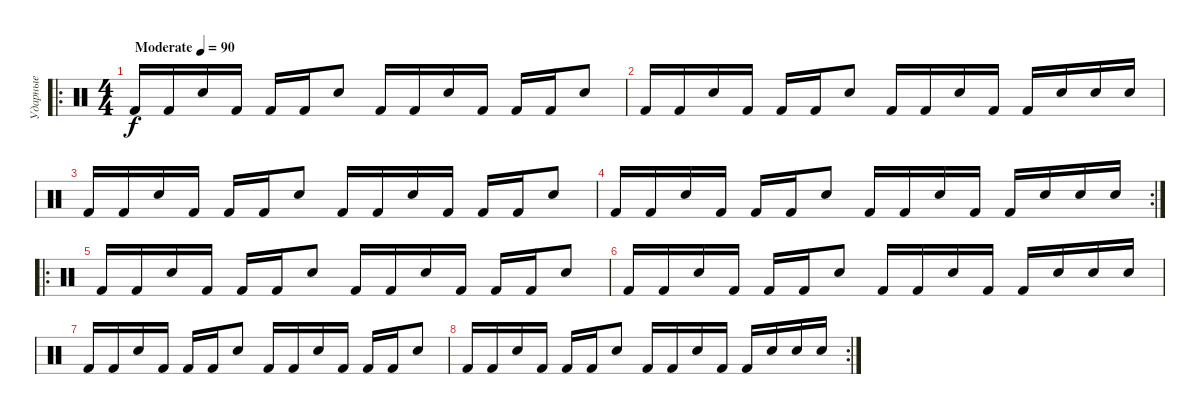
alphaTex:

\track ("Ударные" "Ударные") {instrument percussion}
\staff {score}
\articulation defaults
\ro
\ts (4 4)
\tempo (90 "Moderate")
\clef neutral
\ks c "Kick (hit) 2".16{dy f} "Kick (hit) 2".16 "Snare (hit) 2".16 "Kick (hit) 2".16 "Kick (hit) 2".16 "Kick (hit) 2".16 "Snare (hit) 2".8 "Kick (hit) 2".16 "Kick (hit) 2".16 "Snare (hit) 2".16 "Kick (hit) 2".16 "Kick (hit) 2".16 "Kick (hit) 2".16 "Snare (hit) 2".8
|
"Kick (hit) 2".16 "Kick (hit) 2".16 "Snare (hit) 2".16 "Kick (hit) 2".16 "Kick (hit) 2".16 "Kick (hit) 2".16 "Snare (hit) 2".8 "Kick (hit) 2".16 "Kick (hit) 2".16 "Snare (hit) 2".16 "Kick (hit) 2".16 "Kick (hit) 2".16 "Snare (hit) 2".16 "Snare (hit) 2".16 "Snare (hit) 2".16 |
"Kick (hit) 2".16 "Kick (hit) 2".16 "Snare (hit) 2".16 "Kick (hit) 2".16 "Kick (hit) 2".16 "Kick (hit) 2".16 "Snare (hit) 2".8 "Kick (hit) 2".16 "Kick (hit) 2".16 "Snare (hit) 2".16 "Kick (hit) 2".16 "Kick (hit) 2".16 "Kick (hit) 2".16 "Snare (hit) 2".8 |
\rc 2 "Kick (hit) 2".16 "Kick (hit) 2".16 "Snare (hit) 2".16 "Kick (hit) 2".16 "Kick (hit) 2".16 "Kick (hit) 2".16 "Snare (hit) 2".8 "Kick (hit) 2".16 "Kick (hit) 2".16 "Snare (hit) 2".16 "Kick (hit) 2".16 "Kick (hit) 2".16 "Snare (hit) 2".16 "Snare (hit) 2".16 "Snare (hit) 2".16
|
\ro "Kick (hit) 2".16 "Kick (hit) 2".16 "Snare (hit) 2".16 "Kick (hit) 2".16 "Kick (hit) 2".16 "Kick (hit) 2".16 "Snare (hit) 2".8 "Kick (hit) 2".16 "Kick (hit) 2".16 "Snare (hit) 2".16 "Kick (hit) 2".16 "Kick (hit) 2".16 "Kick (hit) 2".16 "Snare (hit) 2".8
|
"Kick (hit) 2".16 "Kick (hit) 2".16 "Snare (hit) 2".16 "Kick (hit) 2".16 "Kick (hit) 2".16 "Kick (hit) 2".16 "Snare (hit) 2".8 "Kick (hit) 2".16 "Kick (hit) 2".16 "Snare (hit) 2".16 "Kick (hit) 2".16 "Kick (hit) 2".16 "Snare (hit) 2".16 "Snare (hit) 2".16 "Snare (hit) 2".16 |
"Kick (hit) 2".16 "Kick (hit) 2".16 "Snare (hit) 2".16 "Kick (hit) 2".16 "Kick (hit) 2".16 "Kick (hit) 2".16 "Snare (hit) 2".8 "Kick (hit) 2".16 "Kick (hit) 2".16 "Snare (hit) 2".16 "Kick (hit) 2".16 "Kick (hit) 2".16 "Kick (hit) 2".16 "Snare (hit) 2".8 |
\rc 2 "Kick (hit) 2".16 "Kick (hit) 2".16 "Snare (hit) 2".16 "Kick (hit) 2".16 "Kick (hit) 2".16 "Kick (hit) 2".16 "Snare (hit) 2".8 "Kick (hit) 2".16 "Kick (hit) 2".16 "Snare (hit) 2".16 "Kick (hit) 2".16 "Kick (hit) 2".16 "Snare (hit) 2".16 "Snare (hit) 2".16 "Snare (hit) 2".16
